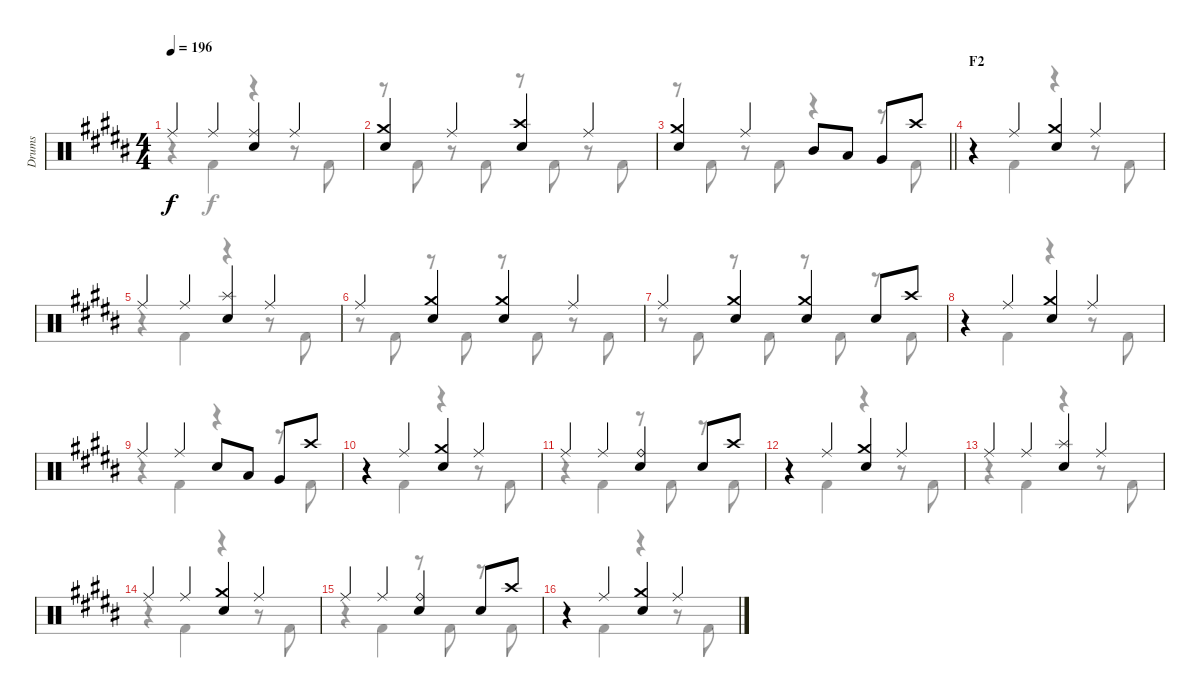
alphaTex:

\track ("Drums" "Drums") {instrument percussion}
\staff {score}
\articulation defaults
\voice
\ts (4 4)
\tempo 196
\clef neutral
\ks b "Ride (middle)".4{dy f} "Ride (middle)".4
("Ride (middle)" "Electric Snare (hit)").4 "Ride (middle)".4 |
("Crash medium (hit)" "Electric Snare (hit)").4 "Ride (middle)".4 ("Crash high (hit)" "Electric Snare (hit)").4 "Ride (middle)".4 |
\barLineRight lightlight
("Crash medium (hit)" "Electric Snare (hit)").4 "Ride (middle)".4 "Mid Tom (hit)".8 "Low Tom (hit)".8 "Very Low Tom (hit)".8 "Crash high (hit)".8 |
\section ("" "F2")
r.4 "Ride (middle)".4 ("Crash medium (hit)" "Electric Snare (hit)").4 "Ride (middle)".4 |
"Ride (middle)".4 "Ride (middle)".4 ("Splash (hit)" "Electric Snare (hit)").4 "Ride (middle)".4 |
"Ride (middle)".4 ("Crash medium (hit)" "Electric Snare (hit)").4 ("Crash medium (hit)" "Electric Snare (hit)").4 "Ride (middle)".4 |
"Ride (middle)".4 ("Crash medium (hit)" "Electric Snare (hit)").4 ("Crash medium (hit)" "Electric Snare (hit)").4 "Electric Snare (hit)".8 "Crash high (hit)".8 |
r.4 "Ride (middle)".4 ("Crash medium (hit)" "Electric Snare (hit)").4 "Ride (middle)".4 |
"Ride (middle)".4 "Ride (middle)".4 "Electric Snare (hit)".8 "Low Tom (hit)".8 "Very Low Tom (hit)".8 "Crash high (hit)".8 |
r.4 "Ride (middle)".4 ("Crash medium (hit)" "Electric Snare (hit)").4 "Ride (middle)".4 |
"Ride (middle)".4 "Ride (middle)".4 ("Ride (bell)" "Electric Snare (hit)").4 "Electric Snare (hit)".8 "Crash high (hit)".8 |
r.4 "Ride (middle)".4 ("Crash medium (hit)" "Electric Snare (hit)").4 "Ride (middle)".4 |
"Ride (middle)".4 "Ride (middle)".4 ("Splash (hit)" "Electric Snare (hit)").4 "Ride (middle)".4 |
"Ride (middle)".4 "Ride (middle)".4 ("Crash medium (hit)" "Electric Snare (hit)").4 "Ride (middle)".4 |
"Ride (middle)".4 "Ride (middle)".4 ("Ride (bell)" "Electric Snare (hit)").4 "Electric Snare (hit)".8 "Crash high (hit)".8 |
r.4 "Ride (middle)".4 ("Crash medium (hit)" "Electric Snare (hit)").4 "Ride (middle)".4
\voice
\clef neutral
\ottava regular
\simile none
\ks b
r.4{dy f} "Kick (hit) 2".4 r.4 r.8 "Kick (hit) 2".8 |
r.8 "Kick (hit) 2".8 r.8 "Kick (hit) 2".8 r.8 "Kick (hit) 2".8 r.8 "Kick (hit) 2".8 |
\barLineRight lightlight
r.8 "Kick (hit) 2".8 r.8 "Kick (hit) 2".8 r.4 r.8 "Kick (hit) 2".8 |
r.4 "Kick (hit) 2".4 r.4 r.8 "Kick (hit) 2".8 |
r.4 "Kick (hit) 2".4 r.4 r.8 "Kick (hit) 2".8 |
r.8 "Kick (hit) 2".8 r.8 "Kick (hit) 2".8 r.8 "Kick (hit) 2".8 r.8 "Kick (hit) 2".8 |
r.8 "Kick (hit) 2".8 r.8 "Kick (hit) 2".8 r.8 "Kick (hit) 2".8 r.8 "Kick (hit) 2".8 |
r.4 "Kick (hit) 2".4 r.4 r.8 "Kick (hit) 2".8 |
r.4 "Kick (hit) 2".4 r.4 r.8 "Kick (hit) 2".8 |
r.4 "Kick (hit) 2".4 r.4 r.8 "Kick (hit) 2".8 |
r.4 "Kick (hit) 2".4 r.8 "Kick (hit) 2".8 r.8 "Kick (hit) 2".8 |
r.4 "Kick (hit) 2".4 r.4 r.8 "Kick (hit) 2".8 |
r.4 "Kick (hit) 2".4 r.4 r.8 "Kick (hit) 2".8 |
r.4 "Kick (hit) 2".4 r.4 r.8 "Kick (hit) 2".8 |
r.4 "Kick (hit) 2".4 r.8 "Kick (hit) 2".8 r.8 "Kick (hit) 2".8 |
r.4 "Kick (hit) 2".4 r.4 r.8 "Kick (hit) 2".8
